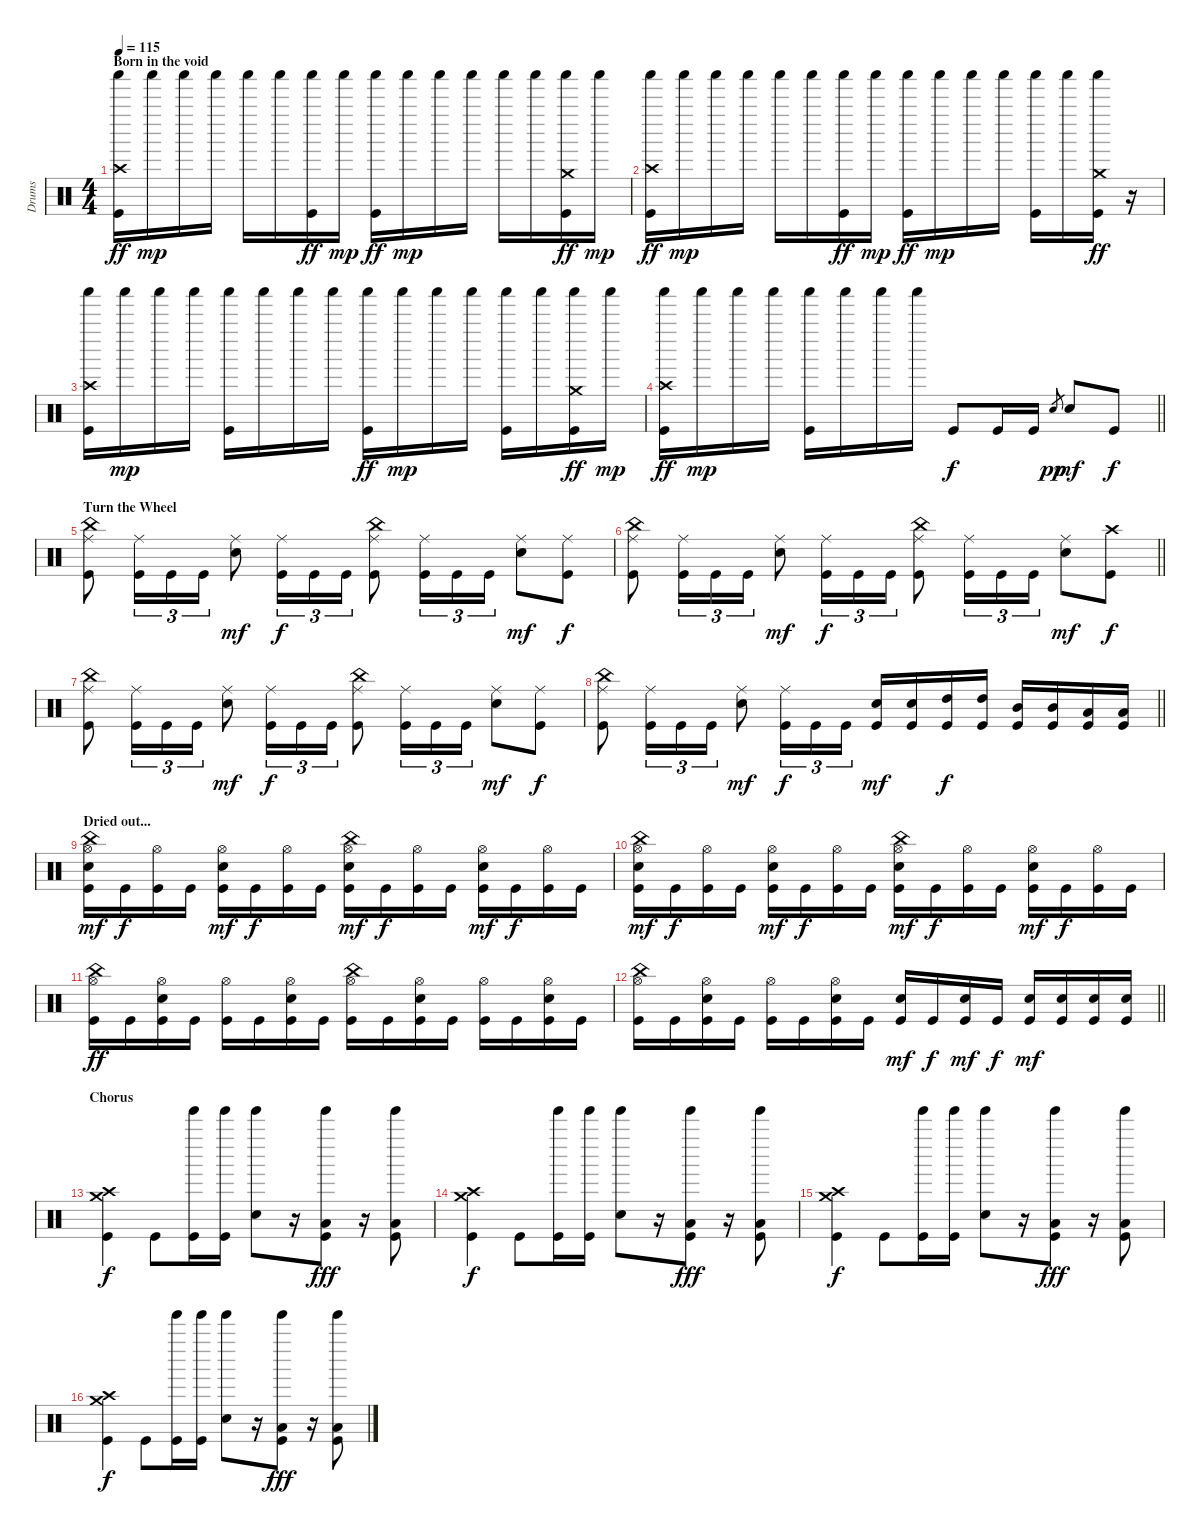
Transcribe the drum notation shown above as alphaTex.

\track ("Drums" "Drums") {instrument percussion}
\staff {score}
\articulation defaults
\ts (4 4)
\section ("" "Born in the void")
\tempo 115
\clef neutral
\ks c
("Crash high (hit)" "Shaker (hit)" "Kick (hit)").16{dy ff} "Shaker (hit)".16{dy mp} "Shaker (hit)".16 "Shaker (hit)".16 "Shaker (hit)".16 "Shaker (hit)".16 ("Shaker (hit)" "Kick (hit)").16{dy ff} "Shaker (hit)".16{dy mp} ("Shaker (hit)" "Kick (hit)").16{dy ff} "Shaker (hit)".16{dy mp} "Shaker (hit)".16 "Shaker (hit)".16 "Shaker (hit)".16 "Shaker (hit)".16 ("Crash medium (hit)" "Shaker (hit)" "Kick (hit)").16{dy ff} "Shaker (hit)".16{dy mp} |
("Crash high (hit)" "Shaker (hit)" "Kick (hit)").16{dy ff} "Shaker (hit)".16{dy mp} "Shaker (hit)".16 "Shaker (hit)".16 "Shaker (hit)".16 "Shaker (hit)".16 ("Shaker (hit)" "Kick (hit)").16{dy ff} "Shaker (hit)".16{dy mp} ("Shaker (hit)" "Kick (hit)").16{dy ff} "Shaker (hit)".16{dy mp} "Shaker (hit)".16 "Shaker (hit)".16 ("Shaker (hit)" "Kick (hit)").16 "Shaker (hit)".16 ("Crash medium (hit)" "Shaker (hit)" "Kick (hit)").16{dy ff} r.16 |
("Crash high (hit)" "Shaker (hit)" "Kick (hit)").16 "Shaker (hit)".16{dy mp} "Shaker (hit)".16 "Shaker (hit)".16 ("Shaker (hit)" "Kick (hit)").16 "Shaker (hit)".16 "Shaker (hit)".16 "Shaker (hit)".16 ("Shaker (hit)" "Kick (hit)").16{dy ff} "Shaker (hit)".16{dy mp} "Shaker (hit)".16 "Shaker (hit)".16 ("Shaker (hit)" "Kick (hit)").16 "Shaker (hit)".16 ("Crash medium (hit)" "Shaker (hit)" "Kick (hit)").16{dy ff} "Shaker (hit)".16{dy mp} |
\barLineRight lightlight
("Crash high (hit)" "Shaker (hit)" "Kick (hit)").16{dy ff} "Shaker (hit)".16{dy mp} "Shaker (hit)".16 "Shaker (hit)".16 ("Shaker (hit)" "Kick (hit)").16 "Shaker (hit)".16 "Shaker (hit)".16 "Shaker (hit)".16 "Kick (hit)".8{dy f} "Kick (hit)".16 "Kick (hit)".16 "Snare (hit) 2".8{gr dy pp} "Snare (hit) 2".8{dy mf} "Kick (hit)".8{dy f} |
\section ("" "Turn the Wheel")
("China (hit)" "Ride (middle)" "Kick (hit)").8 ("Ride (middle)" "Kick (hit)").16{tu (3 2)} "Kick (hit)".16{tu (3 2)} "Kick (hit)".16{tu (3 2)} ("Ride (middle)" "Snare (hit) 2").8{dy mf} ("Ride (middle)" "Kick (hit)").16{tu (3 2) dy f} "Kick (hit)".16{tu (3 2)} "Kick (hit)".16{tu (3 2)} ("China (hit)" "Ride (middle)" "Kick (hit)").8 ("Ride (middle)" "Kick (hit)").16{tu (3 2)} "Kick (hit)".16{tu (3 2)} "Kick (hit)".16{tu (3 2)} ("Ride (middle)" "Snare (hit) 2").8{dy mf} ("Ride (middle)" "Kick (hit)").8{dy f} |
\barLineRight lightlight
("China (hit)" "Ride (middle)" "Kick (hit)").8 ("Ride (middle)" "Kick (hit)").16{tu (3 2)} "Kick (hit)".16{tu (3 2)} "Kick (hit)".16{tu (3 2)} ("Ride (middle)" "Snare (hit) 2").8{dy mf} ("Ride (middle)" "Kick (hit)").16{tu (3 2) dy f} "Kick (hit)".16{tu (3 2)} "Kick (hit)".16{tu (3 2)} ("China (hit)" "Ride (middle)" "Kick (hit)").8 ("Ride (middle)" "Kick (hit)").16{tu (3 2)} "Kick (hit)".16{tu (3 2)} "Kick (hit)".16{tu (3 2)} ("Ride (middle)" "Snare (hit) 2").8{dy mf} ("Crash high (hit)" "Kick (hit)").8{dy f} |
("China (hit)" "Ride (middle)" "Kick (hit)").8 ("Ride (middle)" "Kick (hit)").16{tu (3 2)} "Kick (hit)".16{tu (3 2)} "Kick (hit)".16{tu (3 2)} ("Ride (middle)" "Snare (hit) 2").8{dy mf} ("Ride (middle)" "Kick (hit)").16{tu (3 2) dy f} "Kick (hit)".16{tu (3 2)} "Kick (hit)".16{tu (3 2)} ("China (hit)" "Ride (middle)" "Kick (hit)").8 ("Ride (middle)" "Kick (hit)").16{tu (3 2)} "Kick (hit)".16{tu (3 2)} "Kick (hit)".16{tu (3 2)} ("Ride (middle)" "Snare (hit) 2").8{dy mf} ("Ride (middle)" "Kick (hit)").8{dy f} |
\barLineRight lightlight
("China (hit)" "Ride (middle)" "Kick (hit)").8 ("Ride (middle)" "Kick (hit)").16{tu (3 2)} "Kick (hit)".16{tu (3 2)} "Kick (hit)".16{tu (3 2)} ("Ride (middle)" "Snare (hit) 2").8{dy mf} ("Ride (middle)" "Kick (hit)").16{tu (3 2) dy f} "Kick (hit)".16{tu (3 2)} "Kick (hit)".16{tu (3 2)} ("Snare (hit) 2" "Kick (hit)").16{dy mf} ("Snare (hit) 2" "Kick (hit)").16 ("High Tom (hit)" "Kick (hit)").16{dy f} ("High Tom (hit)" "Kick (hit)").16 ("Mid Tom (hit)" "Kick (hit)").16 ("Mid Tom (hit)" "Kick (hit)").16 ("Low Tom (hit)" "Kick (hit)").16 ("Low Tom (hit)" "Kick (hit)").16 |
\section ("" "Dried out...")
("China (hit)" "Hi-Hat (open)" "Snare (hit) 2" "Kick (hit)").16{dy mf} "Kick (hit)".16{dy f} ("Hi-Hat (open)" "Kick (hit)").16 "Kick (hit)".16 ("Hi-Hat (open)" "Snare (hit) 2" "Kick (hit)").16{dy mf} "Kick (hit)".16{dy f} ("Hi-Hat (open)" "Kick (hit)").16 "Kick (hit)".16 ("China (hit)" "Hi-Hat (open)" "Snare (hit) 2" "Kick (hit)").16{dy mf} "Kick (hit)".16{dy f} ("Hi-Hat (open)" "Kick (hit)").16 "Kick (hit)".16 ("Hi-Hat (open)" "Snare (hit) 2" "Kick (hit)").16{dy mf} "Kick (hit)".16{dy f} ("Hi-Hat (open)" "Kick (hit)").16 "Kick (hit)".16 |
("China (hit)" "Hi-Hat (open)" "Snare (hit) 2" "Kick (hit)").16{dy mf} "Kick (hit)".16{dy f} ("Hi-Hat (open)" "Kick (hit)").16 "Kick (hit)".16 ("Hi-Hat (open)" "Snare (hit) 2" "Kick (hit)").16{dy mf} "Kick (hit)".16{dy f} ("Hi-Hat (open)" "Kick (hit)").16 "Kick (hit)".16 ("China (hit)" "Hi-Hat (open)" "Snare (hit) 2" "Kick (hit)").16{dy mf} "Kick (hit)".16{dy f} ("Hi-Hat (open)" "Kick (hit)").16 "Kick (hit)".16 ("Hi-Hat (open)" "Snare (hit) 2" "Kick (hit)").16{dy mf} "Kick (hit)".16{dy f} ("Hi-Hat (open)" "Kick (hit)").16 "Kick (hit)".16 |
("China (hit)" "Hi-Hat (open)" "Kick (hit)").16{dy ff} "Kick (hit)".16 ("Hi-Hat (open)" "Snare (hit) 2" "Kick (hit)").16 "Kick (hit)".16 ("Hi-Hat (open)" "Kick (hit)").16 "Kick (hit)".16 ("Hi-Hat (open)" "Snare (hit) 2" "Kick (hit)").16 "Kick (hit)".16 ("China (hit)" "Hi-Hat (open)" "Kick (hit)").16 "Kick (hit)".16 ("Hi-Hat (open)" "Snare (hit) 2" "Kick (hit)").16 "Kick (hit)".16 ("Hi-Hat (open)" "Kick (hit)").16 "Kick (hit)".16 ("Hi-Hat (open)" "Snare (hit) 2" "Kick (hit)").16 "Kick (hit)".16 |
\barLineRight lightlight
("China (hit)" "Hi-Hat (open)" "Kick (hit)").16 "Kick (hit)".16 ("Hi-Hat (open)" "Snare (hit) 2" "Kick (hit)").16 "Kick (hit)".16 ("Hi-Hat (open)" "Kick (hit)").16 "Kick (hit)".16 ("Hi-Hat (open)" "Snare (hit) 2" "Kick (hit)").16 "Kick (hit)".16 ("Snare (hit) 2" "Kick (hit)").16{dy mf} "Kick (hit)".16{dy f} ("Snare (hit) 2" "Kick (hit)").16{dy mf} "Kick (hit)".16{dy f} ("Snare (hit) 2" "Kick (hit)").16{dy mf} ("Snare (hit) 2" "Kick (hit)").16 ("Snare (hit) 2" "Kick (hit)").16 ("Snare (hit) 2" "Kick (hit)").16 |
\section ("" "Chorus")
("Crash high (hit)" "Crash medium (hit)" "Kick (hit)").4{dy f} "Kick (hit)".8 ("Tinkle Bell (hit)" "Kick (hit)").16 ("Tinkle Bell (hit)" "Kick (hit)").16 ("Tinkle Bell (hit)" "Snare (hit) 2").8 r.16 ("Tinkle Bell (hit)" "Low Tom (hit)" "Kick (hit)").8{dy fff} r.16 ("Tinkle Bell (hit)" "Low Tom (hit)" "Kick (hit)").8 |
("Crash high (hit)" "Crash medium (hit)" "Kick (hit)").4{dy f} "Kick (hit)".8 ("Tinkle Bell (hit)" "Kick (hit)").16 ("Tinkle Bell (hit)" "Kick (hit)").16 ("Tinkle Bell (hit)" "Snare (hit) 2").8 r.16 ("Tinkle Bell (hit)" "Low Tom (hit)" "Kick (hit)").8{dy fff} r.16 ("Tinkle Bell (hit)" "Low Tom (hit)" "Kick (hit)").8 |
("Crash high (hit)" "Crash medium (hit)" "Kick (hit)").4{dy f} "Kick (hit)".8 ("Tinkle Bell (hit)" "Kick (hit)").16 ("Tinkle Bell (hit)" "Kick (hit)").16 ("Tinkle Bell (hit)" "Snare (hit) 2").8 r.16 ("Tinkle Bell (hit)" "Low Tom (hit)" "Kick (hit)").8{dy fff} r.16 ("Tinkle Bell (hit)" "Low Tom (hit)" "Kick (hit)").8 |
("Crash high (hit)" "Crash medium (hit)" "Kick (hit)").4{dy f} "Kick (hit)".8 ("Tinkle Bell (hit)" "Kick (hit)").16 ("Tinkle Bell (hit)" "Kick (hit)").16 ("Tinkle Bell (hit)" "Snare (hit) 2").8 r.16 ("Tinkle Bell (hit)" "Low Tom (hit)" "Kick (hit)").8{dy fff} r.16 ("Tinkle Bell (hit)" "Low Tom (hit)" "Kick (hit)").8
